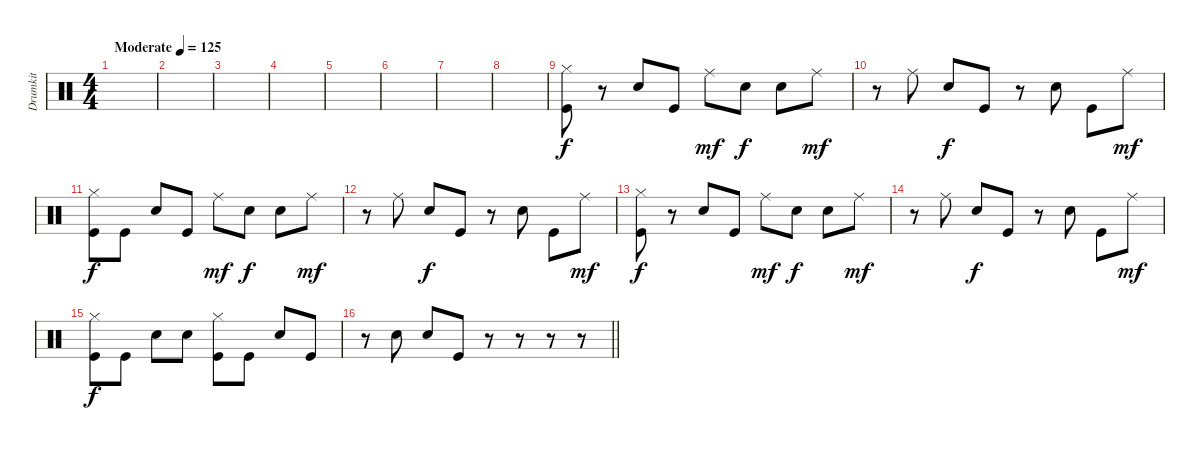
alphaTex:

\track ("Drumkit" "Drumkit") {instrument percussion}
\staff {score}
\articulation defaults
\ts (4 4)
\tempo (125 "Moderate")
\clef neutral
\ks c
|
|
|
|
|
|
|
|
("Kick (hit)" "Hi-Hat (closed)").8 r.8 "Snare (hit) 2".8 "Kick (hit)".8 "Ride (middle)".8{dy mf} "Snare (hit) 2".8{dy f} "Snare (hit) 2".8 "Ride (middle)".8{dy mf} |
r.8 "Ride (middle)".8 "Snare (hit) 2".8{dy f} "Kick (hit)".8 r.8 "Snare (hit) 2".8 "Kick (hit)".8 "Ride (middle)".8{dy mf} |
("Kick (hit)" "Hi-Hat (closed)").8{dy f} "Kick (hit)".8 "Snare (hit) 2".8 "Kick (hit)".8 "Ride (middle)".8{dy mf} "Snare (hit) 2".8{dy f} "Snare (hit) 2".8 "Ride (middle)".8{dy mf} |
r.8 "Ride (middle)".8 "Snare (hit) 2".8{dy f} "Kick (hit)".8 r.8 "Snare (hit) 2".8 "Kick (hit)".8 "Ride (middle)".8{dy mf} |
("Kick (hit)" "Hi-Hat (closed)").8{dy f} r.8 "Snare (hit) 2".8 "Kick (hit)".8 "Ride (middle)".8{dy mf} "Snare (hit) 2".8{dy f} "Snare (hit) 2".8 "Ride (middle)".8{dy mf} |
r.8 "Ride (middle)".8 "Snare (hit) 2".8{dy f} "Kick (hit)".8 r.8 "Snare (hit) 2".8 "Kick (hit)".8 "Ride (middle)".8{dy mf} |
("Kick (hit)" "Hi-Hat (closed)").8{dy f} "Kick (hit)".8 "Snare (hit) 2".8 "Snare (hit) 2".8 ("Kick (hit)" "Hi-Hat (closed)").8 "Kick (hit)".8 "Snare (hit) 2".8 "Kick (hit)".8 |
\barLineRight lightlight
r.8 "Snare (hit) 2".8 "Snare (hit) 2".8 "Kick (hit)".8 r.8 r.8 r.8 r.8
